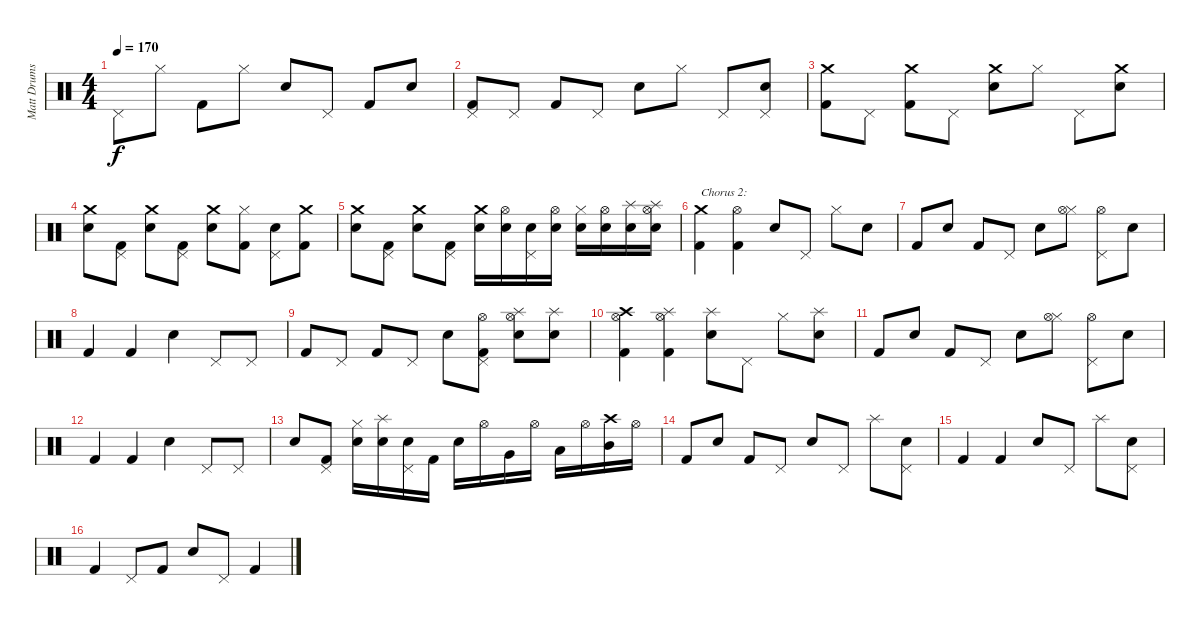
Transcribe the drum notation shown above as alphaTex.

\track ("Matt Drums" "Matt Drums") {instrument percussion}
\staff {score}
\articulation defaults
\ts (4 4)
\tempo 170
\clef neutral
\ks c "Pedal Hi-Hat (hit)".8{dy f} "Hi-Hat (closed)".8 "Kick (hit) 2".8 "Hi-Hat (closed)".8 "Electric Snare (hit)".8 "Pedal Hi-Hat (hit)".8 "Kick (hit) 2".8 "Electric Snare (hit)".8
|
("Pedal Hi-Hat (hit)" "Kick (hit) 2").8 "Pedal Hi-Hat (hit)".8 "Kick (hit) 2".8 "Pedal Hi-Hat (hit)".8 "Electric Snare (hit)".8 "Hi-Hat (closed)".8 "Pedal Hi-Hat (hit)".8 ("Pedal Hi-Hat (hit)" "Electric Snare (hit)").8 |
("Crash medium (hit)" "Kick (hit) 2").8 "Pedal Hi-Hat (hit)".8 ("Crash medium (hit)" "Kick (hit) 2").8 "Pedal Hi-Hat (hit)".8 ("Crash medium (hit)" "Electric Snare (hit)").8 "Hi-Hat (closed)".8 "Pedal Hi-Hat (hit)".8 ("Crash medium (hit)" "Electric Snare (hit)").8 |
("Crash medium (hit)" "Electric Snare (hit)").8 ("Pedal Hi-Hat (hit)" "Kick (hit) 2").8 ("Crash medium (hit)" "Electric Snare (hit)").8 ("Pedal Hi-Hat (hit)" "Kick (hit) 2").8 ("Crash medium (hit)" "Electric Snare (hit)").8 ("Hi-Hat (closed)" "Kick (hit) 2").8 ("Pedal Hi-Hat (hit)" "Electric Snare (hit)").8 ("Crash medium (hit)" "Kick (hit) 2").8 |
("Crash medium (hit)" "Electric Snare (hit)").8 ("Pedal Hi-Hat (hit)" "Kick (hit) 2").8 ("Crash medium (hit)" "Electric Snare (hit)").8 ("Pedal Hi-Hat (hit)" "Kick (hit) 2").8 ("Crash medium (hit)" "Electric Snare (hit)").16 ("Electric Snare (hit)" "Hi-Hat (open)").16 ("Pedal Hi-Hat (hit)" "Electric Snare (hit)").16 ("Electric Snare (hit)" "Hi-Hat (open)").16 ("Hi-Hat (closed)" "Electric Snare (hit)").16 ("Electric Snare (hit)" "Hi-Hat (open)").16 ("Splash (hit)" "Electric Snare (hit)").16 ("Splash (hit)" "Electric Snare (hit)" "Hi-Hat (open)").16 |
("Crash medium (hit)" "Kick (hit) 2").4{txt "Chorus 2:"} ("Kick (hit) 2" "Hi-Hat (open)").4 "Electric Snare (hit)".8 "Pedal Hi-Hat (hit)".8 "Hi-Hat (closed)".8 "Electric Snare (hit)".8 |
"Kick (hit) 2".8 "Electric Snare (hit)".8 "Kick (hit) 2".8 "Pedal Hi-Hat (hit)".8 "Electric Snare (hit)".8 ("Hi-Hat (closed)" "Hi-Hat (open)").8 ("Pedal Hi-Hat (hit)" "Hi-Hat (open)").8 "Electric Snare (hit)".8 |
"Kick (hit) 2".4 "Kick (hit) 2".4 "Electric Snare (hit)".4 "Pedal Hi-Hat (hit)".8 "Pedal Hi-Hat (hit)".8 |
"Kick (hit) 2".8 "Pedal Hi-Hat (hit)".8 "Kick (hit) 2".8 "Pedal Hi-Hat (hit)".8 "Electric Snare (hit)".8 ("Pedal Hi-Hat (hit)" "Kick (hit) 2" "Hi-Hat (open)").8 ("Splash (hit)" "Electric Snare (hit)" "Hi-Hat (open)").8 ("Splash (hit)" "Electric Snare (hit)").8 |
("Crash high (hit)" "Kick (hit) 2" "Hi-Hat (open)").4 ("Splash (hit)" "Kick (hit) 2" "Hi-Hat (open)").4 ("Splash (hit)" "Electric Snare (hit)").8 "Pedal Hi-Hat (hit)".8 "Hi-Hat (closed)".8 ("Splash (hit)" "Electric Snare (hit)").8 |
"Kick (hit) 2".8 "Electric Snare (hit)".8 "Kick (hit) 2".8 "Pedal Hi-Hat (hit)".8 "Electric Snare (hit)".8 ("Hi-Hat (closed)" "Hi-Hat (open)").8 ("Pedal Hi-Hat (hit)" "Hi-Hat (open)").8 "Electric Snare (hit)".8 |
"Kick (hit) 2".4 "Kick (hit) 2".4 "Electric Snare (hit)".4 "Pedal Hi-Hat (hit)".8 "Pedal Hi-Hat (hit)".8 |
"Electric Snare (hit)".8 ("Pedal Hi-Hat (hit)" "Kick (hit) 2").8 ("Hi-Hat (closed)" "Electric Snare (hit)").16 ("Splash (hit)" "Electric Snare (hit)").16 ("Pedal Hi-Hat (hit)" "Electric Snare (hit)").16 "Kick (hit) 2".16 "Electric Snare (hit)".16 "Hi-Hat (open)".16 "Very Low Tom (hit)".16 "Hi-Hat (open)".16 "Low Tom (hit)".16 "Hi-Hat (open)".16 ("Crash high (hit)" "Mid Tom (hit)").16 "Hi-Hat (open)".16 |
"Kick (hit) 2".8 "Electric Snare (hit)".8 "Kick (hit) 2".8 "Pedal Hi-Hat (hit)".8 "Electric Snare (hit)".8 "Pedal Hi-Hat (hit)".8 "Splash (hit)".8 ("Pedal Hi-Hat (hit)" "Electric Snare (hit)").8 |
"Kick (hit) 2".4 "Kick (hit) 2".4 "Electric Snare (hit)".8 "Pedal Hi-Hat (hit)".8 "Splash (hit)".8 ("Pedal Hi-Hat (hit)" "Electric Snare (hit)").8 |
"Kick (hit) 2".4 "Pedal Hi-Hat (hit)".8 "Kick (hit) 2".8 "Electric Snare (hit)".8 "Pedal Hi-Hat (hit)".8 "Kick (hit) 2".4
